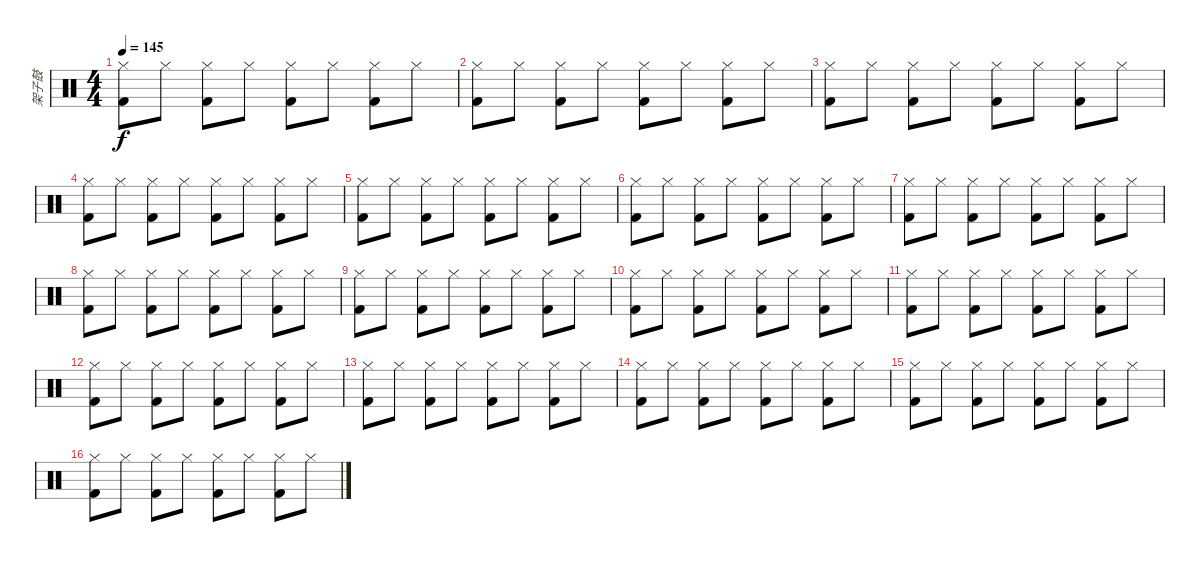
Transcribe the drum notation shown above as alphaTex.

\track ("架子鼓" "架子鼓") {instrument percussion}
\staff {score}
\articulation defaults
\ts (4 4)
\tempo 145
\clef neutral
\ks c
("Kick (hit) 2" "Hi-Hat (closed)").8{dy f} "Hi-Hat (closed)".8 ("Kick (hit) 2" "Hi-Hat (closed)").8 "Hi-Hat (closed)".8 ("Kick (hit) 2" "Hi-Hat (closed)").8 "Hi-Hat (closed)".8 ("Kick (hit) 2" "Hi-Hat (closed)").8 "Hi-Hat (closed)".8 |
("Kick (hit) 2" "Hi-Hat (closed)").8 "Hi-Hat (closed)".8 ("Kick (hit) 2" "Hi-Hat (closed)").8 "Hi-Hat (closed)".8 ("Kick (hit) 2" "Hi-Hat (closed)").8 "Hi-Hat (closed)".8 ("Kick (hit) 2" "Hi-Hat (closed)").8 "Hi-Hat (closed)".8 |
("Kick (hit) 2" "Hi-Hat (closed)").8 "Hi-Hat (closed)".8 ("Kick (hit) 2" "Hi-Hat (closed)").8 "Hi-Hat (closed)".8 ("Kick (hit) 2" "Hi-Hat (closed)").8 "Hi-Hat (closed)".8 ("Kick (hit) 2" "Hi-Hat (closed)").8 "Hi-Hat (closed)".8 |
("Kick (hit) 2" "Hi-Hat (closed)").8 "Hi-Hat (closed)".8 ("Kick (hit) 2" "Hi-Hat (closed)").8 "Hi-Hat (closed)".8 ("Kick (hit) 2" "Hi-Hat (closed)").8 "Hi-Hat (closed)".8 ("Kick (hit) 2" "Hi-Hat (closed)").8 "Hi-Hat (closed)".8 |
("Kick (hit) 2" "Hi-Hat (closed)").8 "Hi-Hat (closed)".8 ("Kick (hit) 2" "Hi-Hat (closed)").8 "Hi-Hat (closed)".8 ("Kick (hit) 2" "Hi-Hat (closed)").8 "Hi-Hat (closed)".8 ("Kick (hit) 2" "Hi-Hat (closed)").8 "Hi-Hat (closed)".8 |
("Kick (hit) 2" "Hi-Hat (closed)").8 "Hi-Hat (closed)".8 ("Kick (hit) 2" "Hi-Hat (closed)").8 "Hi-Hat (closed)".8 ("Kick (hit) 2" "Hi-Hat (closed)").8 "Hi-Hat (closed)".8 ("Kick (hit) 2" "Hi-Hat (closed)").8 "Hi-Hat (closed)".8 |
("Kick (hit) 2" "Hi-Hat (closed)").8 "Hi-Hat (closed)".8 ("Kick (hit) 2" "Hi-Hat (closed)").8 "Hi-Hat (closed)".8 ("Kick (hit) 2" "Hi-Hat (closed)").8 "Hi-Hat (closed)".8 ("Kick (hit) 2" "Hi-Hat (closed)").8 "Hi-Hat (closed)".8 |
("Kick (hit) 2" "Hi-Hat (closed)").8 "Hi-Hat (closed)".8 ("Kick (hit) 2" "Hi-Hat (closed)").8 "Hi-Hat (closed)".8 ("Kick (hit) 2" "Hi-Hat (closed)").8 "Hi-Hat (closed)".8 ("Kick (hit) 2" "Hi-Hat (closed)").8 "Hi-Hat (closed)".8 |
("Kick (hit) 2" "Hi-Hat (closed)").8 "Hi-Hat (closed)".8 ("Kick (hit) 2" "Hi-Hat (closed)").8 "Hi-Hat (closed)".8 ("Kick (hit) 2" "Hi-Hat (closed)").8 "Hi-Hat (closed)".8 ("Kick (hit) 2" "Hi-Hat (closed)").8 "Hi-Hat (closed)".8 |
("Kick (hit) 2" "Hi-Hat (closed)").8 "Hi-Hat (closed)".8 ("Kick (hit) 2" "Hi-Hat (closed)").8 "Hi-Hat (closed)".8 ("Kick (hit) 2" "Hi-Hat (closed)").8 "Hi-Hat (closed)".8 ("Kick (hit) 2" "Hi-Hat (closed)").8 "Hi-Hat (closed)".8 |
("Kick (hit) 2" "Hi-Hat (closed)").8 "Hi-Hat (closed)".8 ("Kick (hit) 2" "Hi-Hat (closed)").8 "Hi-Hat (closed)".8 ("Kick (hit) 2" "Hi-Hat (closed)").8 "Hi-Hat (closed)".8 ("Kick (hit) 2" "Hi-Hat (closed)").8 "Hi-Hat (closed)".8 |
("Kick (hit) 2" "Hi-Hat (closed)").8 "Hi-Hat (closed)".8 ("Kick (hit) 2" "Hi-Hat (closed)").8 "Hi-Hat (closed)".8 ("Kick (hit) 2" "Hi-Hat (closed)").8 "Hi-Hat (closed)".8 ("Kick (hit) 2" "Hi-Hat (closed)").8 "Hi-Hat (closed)".8 |
("Kick (hit) 2" "Hi-Hat (closed)").8 "Hi-Hat (closed)".8 ("Kick (hit) 2" "Hi-Hat (closed)").8 "Hi-Hat (closed)".8 ("Kick (hit) 2" "Hi-Hat (closed)").8 "Hi-Hat (closed)".8 ("Kick (hit) 2" "Hi-Hat (closed)").8 "Hi-Hat (closed)".8 |
("Kick (hit) 2" "Hi-Hat (closed)").8 "Hi-Hat (closed)".8 ("Kick (hit) 2" "Hi-Hat (closed)").8 "Hi-Hat (closed)".8 ("Kick (hit) 2" "Hi-Hat (closed)").8 "Hi-Hat (closed)".8 ("Kick (hit) 2" "Hi-Hat (closed)").8 "Hi-Hat (closed)".8 |
("Kick (hit) 2" "Hi-Hat (closed)").8 "Hi-Hat (closed)".8 ("Kick (hit) 2" "Hi-Hat (closed)").8 "Hi-Hat (closed)".8 ("Kick (hit) 2" "Hi-Hat (closed)").8 "Hi-Hat (closed)".8 ("Kick (hit) 2" "Hi-Hat (closed)").8 "Hi-Hat (closed)".8 |
("Kick (hit) 2" "Hi-Hat (closed)").8 "Hi-Hat (closed)".8 ("Kick (hit) 2" "Hi-Hat (closed)").8 "Hi-Hat (closed)".8 ("Kick (hit) 2" "Hi-Hat (closed)").8 "Hi-Hat (closed)".8 ("Kick (hit) 2" "Hi-Hat (closed)").8 "Hi-Hat (closed)".8
